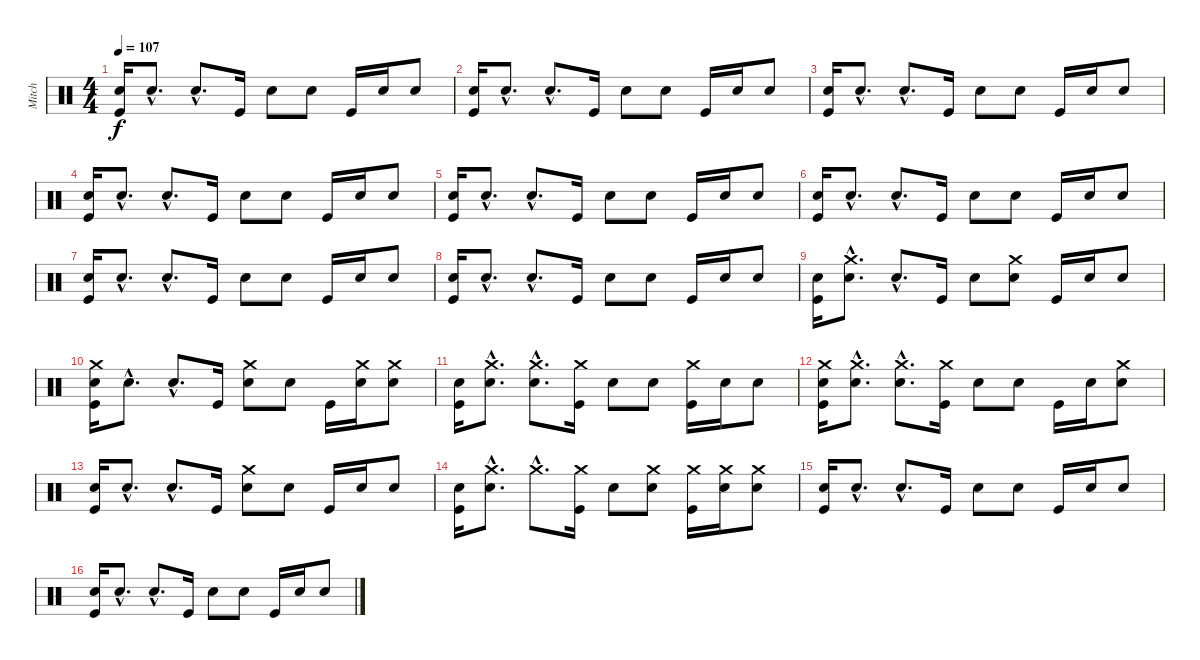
\track ("Mitch" "Mitch") {instrument percussion}
\staff {score}
\articulation defaults
\ts (4 4)
\tempo 107
\clef neutral
\ks c
("Electric Snare (hit)" "Kick (hit)").16{dy f} "Electric Snare (hit)"{hac}.8{d} "Electric Snare (hit)"{hac}.8{d} "Kick (hit)".16 "Electric Snare (hit)".8 "Electric Snare (hit)".8 "Kick (hit)".16 "Electric Snare (hit)".16 "Electric Snare (hit)".8 |
("Electric Snare (hit)" "Kick (hit)").16 "Electric Snare (hit)"{hac}.8{d} "Electric Snare (hit)"{hac}.8{d} "Kick (hit)".16 "Electric Snare (hit)".8 "Electric Snare (hit)".8 "Kick (hit)".16 "Electric Snare (hit)".16 "Electric Snare (hit)".8 |
("Electric Snare (hit)" "Kick (hit)").16 "Electric Snare (hit)"{hac}.8{d} "Electric Snare (hit)"{hac}.8{d} "Kick (hit)".16 "Electric Snare (hit)".8 "Electric Snare (hit)".8 "Kick (hit)".16 "Electric Snare (hit)".16 "Electric Snare (hit)".8 |
("Electric Snare (hit)" "Kick (hit)").16 "Electric Snare (hit)"{hac}.8{d} "Electric Snare (hit)"{hac}.8{d} "Kick (hit)".16 "Electric Snare (hit)".8 "Electric Snare (hit)".8 "Kick (hit)".16 "Electric Snare (hit)".16 "Electric Snare (hit)".8 |
("Electric Snare (hit)" "Kick (hit)").16 "Electric Snare (hit)"{hac}.8{d} "Electric Snare (hit)"{hac}.8{d} "Kick (hit)".16 "Electric Snare (hit)".8 "Electric Snare (hit)".8 "Kick (hit)".16 "Electric Snare (hit)".16 "Electric Snare (hit)".8 |
("Electric Snare (hit)" "Kick (hit)").16 "Electric Snare (hit)"{hac}.8{d} "Electric Snare (hit)"{hac}.8{d} "Kick (hit)".16 "Electric Snare (hit)".8 "Electric Snare (hit)".8 "Kick (hit)".16 "Electric Snare (hit)".16 "Electric Snare (hit)".8 |
("Electric Snare (hit)" "Kick (hit)").16 "Electric Snare (hit)"{hac}.8{d} "Electric Snare (hit)"{hac}.8{d} "Kick (hit)".16 "Electric Snare (hit)".8 "Electric Snare (hit)".8 "Kick (hit)".16 "Electric Snare (hit)".16 "Electric Snare (hit)".8 |
("Electric Snare (hit)" "Kick (hit)").16 "Electric Snare (hit)"{hac}.8{d} "Electric Snare (hit)"{hac}.8{d} "Kick (hit)".16 "Electric Snare (hit)".8 "Electric Snare (hit)".8 "Kick (hit)".16 "Electric Snare (hit)".16 "Electric Snare (hit)".8 |
("Electric Snare (hit)" "Kick (hit)").16 ("Crash medium (hit)"{hac} "Electric Snare (hit)"{hac}).8{d} "Electric Snare (hit)"{hac}.8{d} "Kick (hit)".16 "Electric Snare (hit)".8 ("Crash medium (hit)" "Electric Snare (hit)").8 "Kick (hit)".16 "Electric Snare (hit)".16 "Electric Snare (hit)".8 |
("Crash medium (hit)" "Electric Snare (hit)" "Kick (hit)").16 "Electric Snare (hit)"{hac}.8{d} "Electric Snare (hit)"{hac}.8{d} "Kick (hit)".16 ("Crash medium (hit)" "Electric Snare (hit)").8 "Electric Snare (hit)".8 "Kick (hit)".16 ("Crash medium (hit)" "Electric Snare (hit)").16 ("Crash medium (hit)" "Electric Snare (hit)").8 |
("Electric Snare (hit)" "Kick (hit)").16 ("Crash medium (hit)"{hac} "Electric Snare (hit)"{hac}).8{d} ("Crash medium (hit)"{hac} "Electric Snare (hit)"{hac}).8{d} ("Crash medium (hit)" "Kick (hit)").16 "Electric Snare (hit)".8 "Electric Snare (hit)".8 ("Crash medium (hit)" "Kick (hit)").16 "Electric Snare (hit)".16 "Electric Snare (hit)".8 |
("Crash medium (hit)" "Electric Snare (hit)" "Kick (hit)").16 ("Crash medium (hit)"{hac} "Electric Snare (hit)"{hac}).8{d} ("Crash medium (hit)"{hac} "Electric Snare (hit)"{hac}).8{d} ("Crash medium (hit)" "Kick (hit)").16 "Electric Snare (hit)".8 "Electric Snare (hit)".8 "Kick (hit)".16 "Electric Snare (hit)".16 ("Crash medium (hit)" "Electric Snare (hit)").8 |
("Electric Snare (hit)" "Kick (hit)").16 "Electric Snare (hit)"{hac}.8{d} "Electric Snare (hit)"{hac}.8{d} "Kick (hit)".16 ("Crash medium (hit)" "Electric Snare (hit)").8 "Electric Snare (hit)".8 "Kick (hit)".16 "Electric Snare (hit)".16 "Electric Snare (hit)".8 |
("Electric Snare (hit)" "Kick (hit)").16 ("Crash medium (hit)"{hac} "Electric Snare (hit)"{hac}).8{d} "Crash medium (hit)"{hac}.8{d} ("Crash medium (hit)" "Kick (hit)").16 "Electric Snare (hit)".8 ("Crash medium (hit)" "Electric Snare (hit)").8 ("Crash medium (hit)" "Kick (hit)").16 ("Crash medium (hit)" "Electric Snare (hit)").16 ("Crash medium (hit)" "Electric Snare (hit)").8 |
("Electric Snare (hit)" "Kick (hit)").16 "Electric Snare (hit)"{hac}.8{d} "Electric Snare (hit)"{hac}.8{d} "Kick (hit)".16 "Electric Snare (hit)".8 "Electric Snare (hit)".8 "Kick (hit)".16 "Electric Snare (hit)".16 "Electric Snare (hit)".8 |
("Electric Snare (hit)" "Kick (hit)").16 "Electric Snare (hit)"{hac}.8{d} "Electric Snare (hit)"{hac}.8{d} "Kick (hit)".16 "Electric Snare (hit)".8 "Electric Snare (hit)".8 "Kick (hit)".16 "Electric Snare (hit)".16 "Electric Snare (hit)".8
